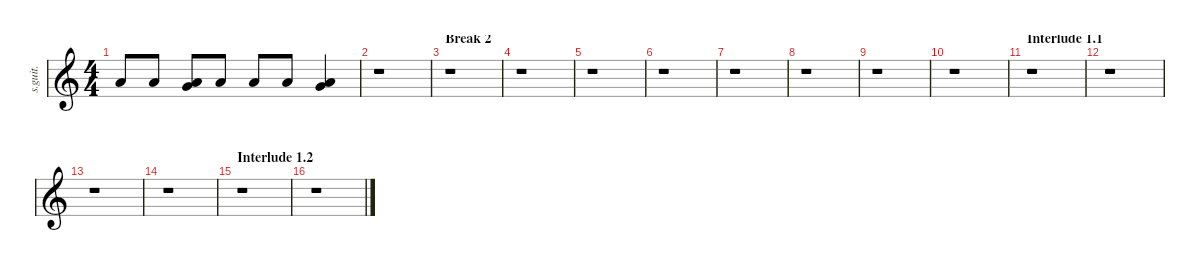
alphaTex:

\defaultSystemsLayout 4
\hideDynamics
\bracketExtendMode nobrackets
\track ("Clown" "s.guit.") {instrument percussion}
\staff {score}
\articulation defaults
\ts (4 4)
\tempo (210 hide)
\clef g2
\ks c "Low Floor Tom (hit)".8{lyrics (0 "") lyrics (1 "") lyrics (2 "") lyrics (3 "") lyrics (4 "") dy f} "Low Floor Tom (hit)".8{lyrics (0 "") lyrics (1 "") lyrics (2 "") lyrics (3 "") lyrics (4 "")}
("Very Low Tom (hit)" "Low Floor Tom (hit)").8{lyrics (0 "") lyrics (1 "") lyrics (2 "") lyrics (3 "") lyrics (4 "")} "Low Floor Tom (hit)".8{lyrics (0 "") lyrics (1 "") lyrics (2 "") lyrics (3 "") lyrics (4 "")} "Low Floor Tom (hit)".8{lyrics (0 "") lyrics (1 "") lyrics (2 "") lyrics (3 "") lyrics (4 "")} "Low Floor Tom (hit)".8{lyrics (0 "") lyrics (1 "") lyrics (2 "") lyrics (3 "") lyrics (4 "")} ("Very Low Tom (hit)" "Low Floor Tom (hit)").4{lyrics (0 "") lyrics (1 "") lyrics (2 "") lyrics (3 "") lyrics (4 "")} |
r.1 |
\section ("" "Break 2")
r.1 |
r.1 |
r.1 |
r.1 |
r.1 |
r.1 |
r.1 |
r.1 |
\section ("" "Interlude 1.1")
\tempo (200 hide)
r.1 |
r.1 |
r.1 |
r.1 |
\section ("" "Interlude 1.2")
r.1 |
r.1
